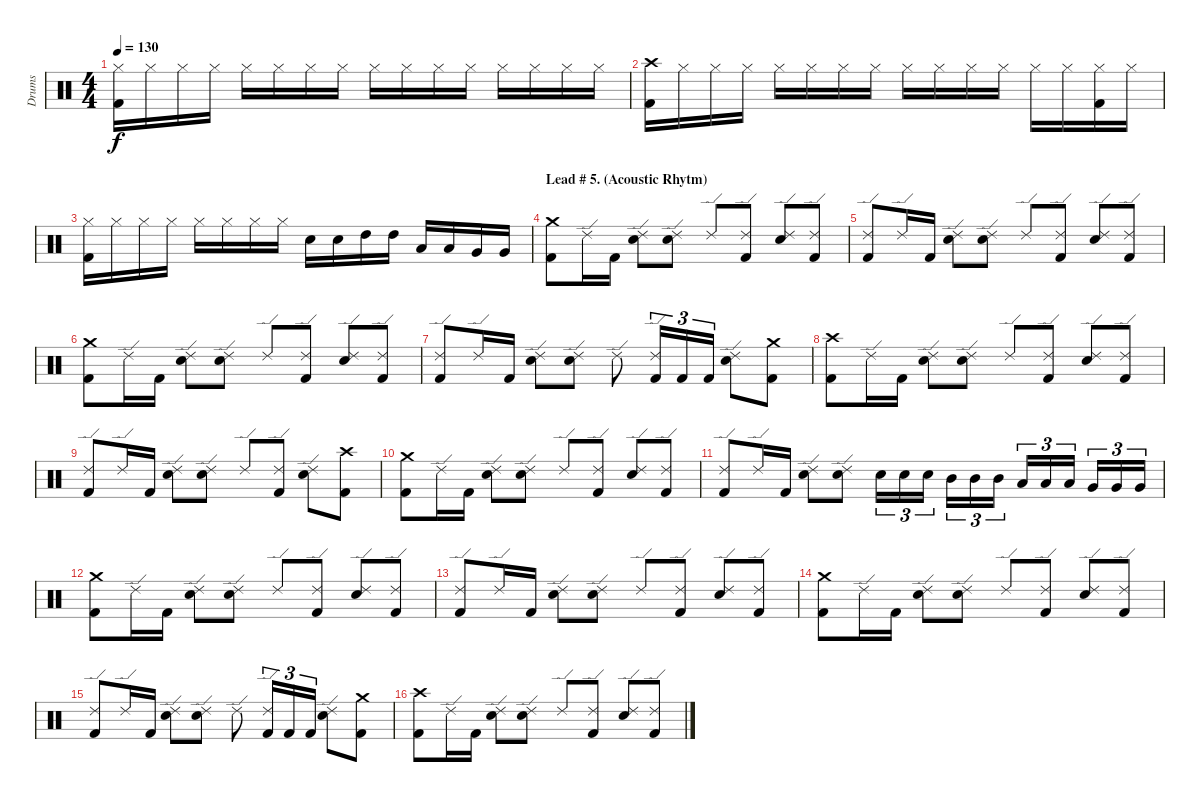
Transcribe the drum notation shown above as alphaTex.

\track ("Drums" "Drums") {instrument percussion}
\staff {score}
\articulation defaults
\ts (4 4)
\tempo 130
\clef neutral
\ks c
("Hi-Hat (closed)" "Kick (hit) 2").16{dy f} "Hi-Hat (closed)".16 "Hi-Hat (closed)".16 "Hi-Hat (closed)".16 "Hi-Hat (closed)".16 "Hi-Hat (closed)".16 "Hi-Hat (closed)".16 "Hi-Hat (closed)".16 "Hi-Hat (closed)".16 "Hi-Hat (closed)".16 "Hi-Hat (closed)".16 "Hi-Hat (closed)".16 "Hi-Hat (closed)".16 "Hi-Hat (closed)".16 "Hi-Hat (closed)".16 "Hi-Hat (closed)".16 |
("Crash high (hit)" "Kick (hit) 2").16 "Hi-Hat (closed)".16 "Hi-Hat (closed)".16 "Hi-Hat (closed)".16 "Hi-Hat (closed)".16 "Hi-Hat (closed)".16 "Hi-Hat (closed)".16 "Hi-Hat (closed)".16 "Hi-Hat (closed)".16 "Hi-Hat (closed)".16 "Hi-Hat (closed)".16 "Hi-Hat (closed)".16 "Hi-Hat (closed)".16 "Hi-Hat (closed)".16 ("Hi-Hat (closed)" "Kick (hit) 2").16 "Hi-Hat (closed)".16 |
("Hi-Hat (closed)" "Kick (hit) 2").16 "Hi-Hat (closed)".16 "Hi-Hat (closed)".16 "Hi-Hat (closed)".16 "Hi-Hat (closed)".16 "Hi-Hat (closed)".16 "Hi-Hat (closed)".16 "Hi-Hat (closed)".16 "Snare (hit) 2".16 "Snare (hit) 2".16 "High Tom (hit)".16 "High Tom (hit)".16 "Low Tom (hit)".16 "Low Tom (hit)".16 "Very Low Tom (hit)".16 "Very Low Tom (hit)".16 |
\section ("" "Lead # 5. (Acoustic Rhytm)")
("Crash medium (hit)" "Kick (hit) 2").8 "Ride (edge) 2".16 "Kick (hit) 2".16 ("Ride (edge) 2" "Snare (hit) 2").8 ("Ride (edge) 2" "Snare (hit) 2").8 "Ride (edge) 2".8 ("Ride (edge) 2" "Kick (hit) 2").8 ("Ride (edge) 2" "Snare (hit) 2").8 ("Ride (edge) 2" "Kick (hit) 2").8 |
("Ride (edge) 2" "Kick (hit) 2").8 "Ride (edge) 2".16 "Kick (hit) 2".16 ("Ride (edge) 2" "Snare (hit) 2").8 ("Ride (edge) 2" "Snare (hit) 2").8 "Ride (edge) 2".8 ("Ride (edge) 2" "Kick (hit) 2").8 ("Ride (edge) 2" "Snare (hit) 2").8 ("Ride (edge) 2" "Kick (hit) 2").8 |
("Crash medium (hit)" "Kick (hit) 2").8 "Ride (edge) 2".16 "Kick (hit) 2".16 ("Ride (edge) 2" "Snare (hit) 2").8 ("Ride (edge) 2" "Snare (hit) 2").8 "Ride (edge) 2".8 ("Ride (edge) 2" "Kick (hit) 2").8 ("Ride (edge) 2" "Snare (hit) 2").8 ("Ride (edge) 2" "Kick (hit) 2").8 |
("Ride (edge) 2" "Kick (hit) 2").8 "Ride (edge) 2".16 "Kick (hit) 2".16 ("Ride (edge) 2" "Snare (hit) 2").8 ("Ride (edge) 2" "Snare (hit) 2").8 "Ride (edge) 2".8 ("Ride (edge) 2" "Kick (hit) 2").16{tu (3 2)} "Kick (hit) 2".16{tu (3 2)} "Kick (hit) 2".16{tu (3 2)} ("Ride (edge) 2" "Snare (hit) 2").8 ("Crash medium (hit)" "Kick (hit) 2").8 |
("Crash high (hit)" "Kick (hit) 2").8 "Ride (edge) 2".16 "Kick (hit) 2".16 ("Ride (edge) 2" "Snare (hit) 2").8 ("Ride (edge) 2" "Snare (hit) 2").8 "Ride (edge) 2".8 ("Ride (edge) 2" "Kick (hit) 2").8 ("Ride (edge) 2" "Snare (hit) 2").8 ("Ride (edge) 2" "Kick (hit) 2").8 |
("Ride (edge) 2" "Kick (hit) 2").8 "Ride (edge) 2".16 "Kick (hit) 2".16 ("Ride (edge) 2" "Snare (hit) 2").8 ("Ride (edge) 2" "Snare (hit) 2").8 "Ride (edge) 2".8 ("Ride (edge) 2" "Kick (hit) 2").8 ("Ride (edge) 2" "Snare (hit) 2").8 ("Crash high (hit)" "Kick (hit) 2").8 |
("Crash medium (hit)" "Kick (hit) 2").8 "Ride (edge) 2".16 "Kick (hit) 2".16 ("Ride (edge) 2" "Snare (hit) 2").8 ("Ride (edge) 2" "Snare (hit) 2").8 "Ride (edge) 2".8 ("Ride (edge) 2" "Kick (hit) 2").8 ("Ride (edge) 2" "Snare (hit) 2").8 ("Ride (edge) 2" "Kick (hit) 2").8 |
("Ride (edge) 2" "Kick (hit) 2").8 "Ride (edge) 2".16 "Kick (hit) 2".16 ("Ride (edge) 2" "Snare (hit) 2").8 ("Ride (edge) 2" "Snare (hit) 2").8 "Snare (hit) 2".16{tu (3 2)} "Snare (hit) 2".16{tu (3 2)} "Snare (hit) 2".16{tu (3 2)} "Mid Tom (hit)".16{tu (3 2)} "Mid Tom (hit)".16{tu (3 2)} "Mid Tom (hit)".16{tu (3 2)} "Low Tom (hit)".16{tu (3 2)} "Low Tom (hit)".16{tu (3 2)} "Low Tom (hit)".16{tu (3 2)} "Very Low Tom (hit)".16{tu (3 2)} "Very Low Tom (hit)".16{tu (3 2)} "Very Low Tom (hit)".16{tu (3 2)} |
("Crash medium (hit)" "Kick (hit) 2").8 "Ride (edge) 2".16 "Kick (hit) 2".16 ("Ride (edge) 2" "Snare (hit) 2").8 ("Ride (edge) 2" "Snare (hit) 2").8 "Ride (edge) 2".8 ("Ride (edge) 2" "Kick (hit) 2").8 ("Ride (edge) 2" "Snare (hit) 2").8 ("Ride (edge) 2" "Kick (hit) 2").8 |
("Ride (edge) 2" "Kick (hit) 2").8 "Ride (edge) 2".16 "Kick (hit) 2".16 ("Ride (edge) 2" "Snare (hit) 2").8 ("Ride (edge) 2" "Snare (hit) 2").8 "Ride (edge) 2".8 ("Ride (edge) 2" "Kick (hit) 2").8 ("Ride (edge) 2" "Snare (hit) 2").8 ("Ride (edge) 2" "Kick (hit) 2").8 |
("Crash medium (hit)" "Kick (hit) 2").8 "Ride (edge) 2".16 "Kick (hit) 2".16 ("Ride (edge) 2" "Snare (hit) 2").8 ("Ride (edge) 2" "Snare (hit) 2").8 "Ride (edge) 2".8 ("Ride (edge) 2" "Kick (hit) 2").8 ("Ride (edge) 2" "Snare (hit) 2").8 ("Ride (edge) 2" "Kick (hit) 2").8 |
("Ride (edge) 2" "Kick (hit) 2").8 "Ride (edge) 2".16 "Kick (hit) 2".16 ("Ride (edge) 2" "Snare (hit) 2").8 ("Ride (edge) 2" "Snare (hit) 2").8 "Ride (edge) 2".8 ("Ride (edge) 2" "Kick (hit) 2").16{tu (3 2)} "Kick (hit) 2".16{tu (3 2)} "Kick (hit) 2".16{tu (3 2)} ("Ride (edge) 2" "Snare (hit) 2").8 ("Crash medium (hit)" "Kick (hit) 2").8 |
("Crash high (hit)" "Kick (hit) 2").8 "Ride (edge) 2".16 "Kick (hit) 2".16 ("Ride (edge) 2" "Snare (hit) 2").8 ("Ride (edge) 2" "Snare (hit) 2").8 "Ride (edge) 2".8 ("Ride (edge) 2" "Kick (hit) 2").8 ("Ride (edge) 2" "Snare (hit) 2").8 ("Ride (edge) 2" "Kick (hit) 2").8
